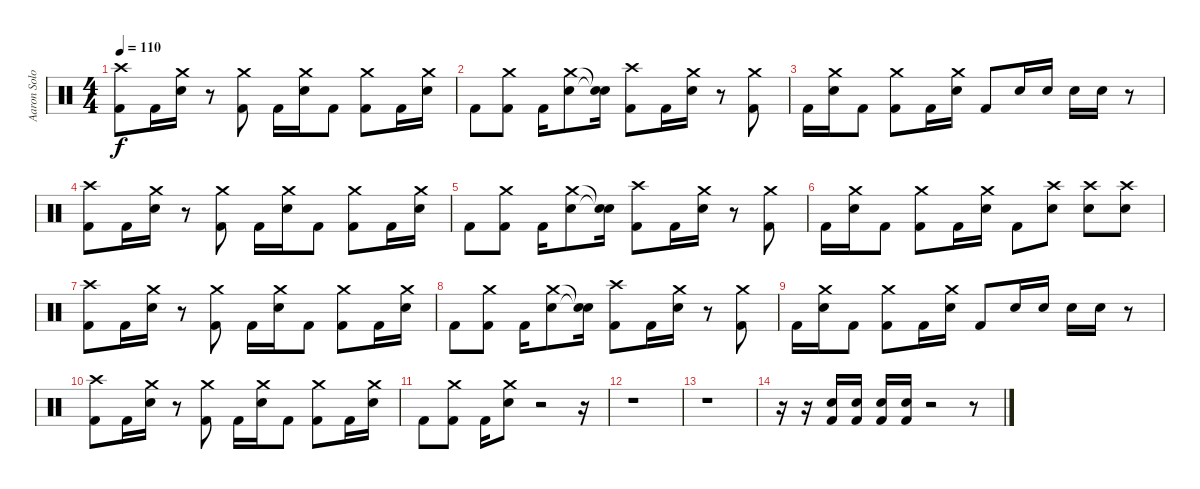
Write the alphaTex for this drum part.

\track ("Aaron Solowoniuk - Drum" "Aaron Solo") {instrument percussion}
\staff {score}
\articulation defaults
\ts (4 4)
\tempo 110
\clef neutral
\ks c
("Crash high (hit)" "Kick (hit) 2").8{dy f} "Kick (hit) 2".16 ("Crash medium (hit)" "Electric Snare (hit)").16 r.8 ("Crash medium (hit)" "Kick (hit) 2").8 "Kick (hit) 2".16 ("Crash medium (hit)" "Electric Snare (hit)").16 "Kick (hit) 2".8 ("Crash medium (hit)" "Kick (hit) 2").8 "Kick (hit) 2".16 ("Crash medium (hit)" "Electric Snare (hit)").16 |
"Kick (hit) 2".8 ("Crash medium (hit)" "Kick (hit) 2").8 "Kick (hit) 2".16 ("Crash medium (hit)" "Electric Snare (hit)").8 ("Snare (hit)"{t} "Snare (hit)"{t}).16 ("Crash high (hit)" "Kick (hit) 2").8 "Kick (hit) 2".16 ("Crash medium (hit)" "Electric Snare (hit)").16 r.8 ("Crash medium (hit)" "Kick (hit) 2").8 |
"Kick (hit) 2".16 ("Crash medium (hit)" "Electric Snare (hit)").16 "Kick (hit) 2".8 ("Crash medium (hit)" "Kick (hit) 2").8 "Kick (hit) 2".16 ("Crash medium (hit)" "Electric Snare (hit)").16 "Kick (hit) 2".8 "Electric Snare (hit)".16 "Electric Snare (hit)".16 "Electric Snare (hit)".16 "Electric Snare (hit)".16 r.8 |
("Crash high (hit)" "Kick (hit) 2").8 "Kick (hit) 2".16 ("Crash medium (hit)" "Electric Snare (hit)").16 r.8 ("Crash medium (hit)" "Kick (hit) 2").8 "Kick (hit) 2".16 ("Crash medium (hit)" "Electric Snare (hit)").16 "Kick (hit) 2".8 ("Crash medium (hit)" "Kick (hit) 2").8 "Kick (hit) 2".16 ("Crash medium (hit)" "Electric Snare (hit)").16 |
"Kick (hit) 2".8 ("Crash medium (hit)" "Kick (hit) 2").8 "Kick (hit) 2".16 ("Crash medium (hit)" "Electric Snare (hit)").8 ("Snare (hit)"{t} "Snare (hit)"{t}).16 ("Crash high (hit)" "Kick (hit) 2").8 "Kick (hit) 2".16 ("Crash medium (hit)" "Electric Snare (hit)").16 r.8 ("Crash medium (hit)" "Kick (hit) 2").8 |
"Kick (hit) 2".16 ("Crash medium (hit)" "Electric Snare (hit)").16 "Kick (hit) 2".8 ("Crash medium (hit)" "Kick (hit) 2").8 "Kick (hit) 2".16 ("Crash medium (hit)" "Electric Snare (hit)").16 "Kick (hit) 2".8 ("Crash high (hit)" "Electric Snare (hit)").8 ("Crash high (hit)" "Electric Snare (hit)").8 ("Crash high (hit)" "Electric Snare (hit)").8 |
("Crash high (hit)" "Kick (hit) 2").8 "Kick (hit) 2".16 ("Crash medium (hit)" "Electric Snare (hit)").16 r.8 ("Crash medium (hit)" "Kick (hit) 2").8 "Kick (hit) 2".16 ("Crash medium (hit)" "Electric Snare (hit)").16 "Kick (hit) 2".8 ("Crash medium (hit)" "Kick (hit) 2").8 "Kick (hit) 2".16 ("Crash medium (hit)" "Electric Snare (hit)").16 |
"Kick (hit) 2".8 ("Crash medium (hit)" "Kick (hit) 2").8 "Kick (hit) 2".16 ("Crash medium (hit)" "Electric Snare (hit)").8 ("Snare (hit)"{t} "Snare (hit)"{t}).16 ("Crash high (hit)" "Kick (hit) 2").8 "Kick (hit) 2".16 ("Crash medium (hit)" "Electric Snare (hit)").16 r.8 ("Crash medium (hit)" "Kick (hit) 2").8 |
"Kick (hit) 2".16 ("Crash medium (hit)" "Electric Snare (hit)").16 "Kick (hit) 2".8 ("Crash medium (hit)" "Kick (hit) 2").8 "Kick (hit) 2".16 ("Crash medium (hit)" "Electric Snare (hit)").16 "Kick (hit) 2".8 "Electric Snare (hit)".16 "Electric Snare (hit)".16 "Electric Snare (hit)".16 "Electric Snare (hit)".16 r.8 |
("Crash high (hit)" "Kick (hit) 2").8 "Kick (hit) 2".16 ("Crash medium (hit)" "Electric Snare (hit)").16 r.8 ("Crash medium (hit)" "Kick (hit) 2").8 "Kick (hit) 2".16 ("Crash medium (hit)" "Electric Snare (hit)").16 "Kick (hit) 2".8 ("Crash medium (hit)" "Kick (hit) 2").8 "Kick (hit) 2".16 ("Crash medium (hit)" "Electric Snare (hit)").16 |
"Kick (hit) 2".8 ("Crash medium (hit)" "Kick (hit) 2").8 "Kick (hit) 2".16 ("Crash medium (hit)" "Electric Snare (hit)").8 r.2 r.16 |
r.1 |
r.1 |
r.16 r.16 ("Electric Snare (hit)" "Kick (hit) 2").16 ("Electric Snare (hit)" "Kick (hit) 2").16 ("Electric Snare (hit)" "Kick (hit) 2").16 ("Electric Snare (hit)" "Kick (hit) 2").16 r.2 r.8
